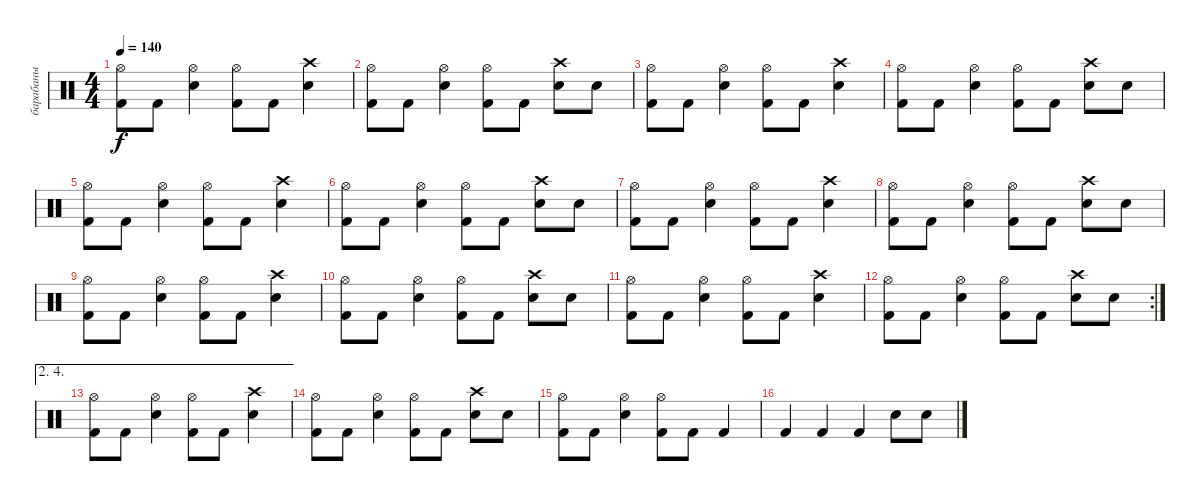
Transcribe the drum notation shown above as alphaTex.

\track ("барабаны" "барабаны") {instrument percussion}
\staff {score}
\articulation defaults
\ts (4 4)
\tempo 140
\clef neutral
\ks c
("Hi-Hat (open)" "Kick (hit) 2").8{dy f} "Kick (hit) 2".8 ("Hi-Hat (open)" "Snare (hit) 2").4 ("Hi-Hat (open)" "Kick (hit) 2").8 "Kick (hit) 2".8 ("Crash high (hit)" "Snare (hit) 2").4 |
("Hi-Hat (open)" "Kick (hit) 2").8 "Kick (hit) 2".8 ("Hi-Hat (open)" "Snare (hit) 2").4 ("Hi-Hat (open)" "Kick (hit) 2").8 "Kick (hit) 2".8 ("Crash high (hit)" "Snare (hit) 2").8 "Snare (hit) 2".8 |
("Hi-Hat (open)" "Kick (hit) 2").8 "Kick (hit) 2".8 ("Hi-Hat (open)" "Snare (hit) 2").4 ("Hi-Hat (open)" "Kick (hit) 2").8 "Kick (hit) 2".8 ("Crash high (hit)" "Snare (hit) 2").4 |
("Hi-Hat (open)" "Kick (hit) 2").8 "Kick (hit) 2".8 ("Hi-Hat (open)" "Snare (hit) 2").4 ("Hi-Hat (open)" "Kick (hit) 2").8 "Kick (hit) 2".8 ("Crash high (hit)" "Snare (hit) 2").8 "Snare (hit) 2".8 |
("Hi-Hat (open)" "Kick (hit) 2").8 "Kick (hit) 2".8 ("Hi-Hat (open)" "Snare (hit) 2").4 ("Hi-Hat (open)" "Kick (hit) 2").8 "Kick (hit) 2".8 ("Crash high (hit)" "Snare (hit) 2").4 |
("Hi-Hat (open)" "Kick (hit) 2").8 "Kick (hit) 2".8 ("Hi-Hat (open)" "Snare (hit) 2").4 ("Hi-Hat (open)" "Kick (hit) 2").8 "Kick (hit) 2".8 ("Crash high (hit)" "Snare (hit) 2").8 "Snare (hit) 2".8 |
("Hi-Hat (open)" "Kick (hit) 2").8 "Kick (hit) 2".8 ("Hi-Hat (open)" "Snare (hit) 2").4 ("Hi-Hat (open)" "Kick (hit) 2").8 "Kick (hit) 2".8 ("Crash high (hit)" "Snare (hit) 2").4 |
("Hi-Hat (open)" "Kick (hit) 2").8 "Kick (hit) 2".8 ("Hi-Hat (open)" "Snare (hit) 2").4 ("Hi-Hat (open)" "Kick (hit) 2").8 "Kick (hit) 2".8 ("Crash high (hit)" "Snare (hit) 2").8 "Snare (hit) 2".8 |
("Hi-Hat (open)" "Kick (hit) 2").8 "Kick (hit) 2".8 ("Hi-Hat (open)" "Snare (hit) 2").4 ("Hi-Hat (open)" "Kick (hit) 2").8 "Kick (hit) 2".8 ("Crash high (hit)" "Snare (hit) 2").4 |
("Hi-Hat (open)" "Kick (hit) 2").8 "Kick (hit) 2".8 ("Hi-Hat (open)" "Snare (hit) 2").4 ("Hi-Hat (open)" "Kick (hit) 2").8 "Kick (hit) 2".8 ("Crash high (hit)" "Snare (hit) 2").8 "Snare (hit) 2".8 |
("Hi-Hat (open)" "Kick (hit) 2").8 "Kick (hit) 2".8 ("Hi-Hat (open)" "Snare (hit) 2").4 ("Hi-Hat (open)" "Kick (hit) 2").8 "Kick (hit) 2".8 ("Crash high (hit)" "Snare (hit) 2").4 |
\rc 2
("Hi-Hat (open)" "Kick (hit) 2").8 "Kick (hit) 2".8 ("Hi-Hat (open)" "Snare (hit) 2").4 ("Hi-Hat (open)" "Kick (hit) 2").8 "Kick (hit) 2".8 ("Crash high (hit)" "Snare (hit) 2").8 "Snare (hit) 2".8 |
\ae (2 4)
("Hi-Hat (open)" "Kick (hit) 2").8 "Kick (hit) 2".8 ("Hi-Hat (open)" "Snare (hit) 2").4 ("Hi-Hat (open)" "Kick (hit) 2").8 "Kick (hit) 2".8 ("Crash high (hit)" "Snare (hit) 2").4 |
("Hi-Hat (open)" "Kick (hit) 2").8 "Kick (hit) 2".8 ("Hi-Hat (open)" "Snare (hit) 2").4 ("Hi-Hat (open)" "Kick (hit) 2").8 "Kick (hit) 2".8 ("Crash high (hit)" "Snare (hit) 2").8 "Snare (hit) 2".8 |
("Hi-Hat (open)" "Kick (hit) 2").8 "Kick (hit) 2".8 ("Hi-Hat (open)" "Snare (hit) 2").4 ("Hi-Hat (open)" "Kick (hit) 2").8 "Kick (hit) 2".8 "Kick (hit) 2".4 |
"Kick (hit) 2".4 "Kick (hit) 2".4 "Kick (hit) 2".4 "Snare (hit) 2".8 "Snare (hit) 2".8
